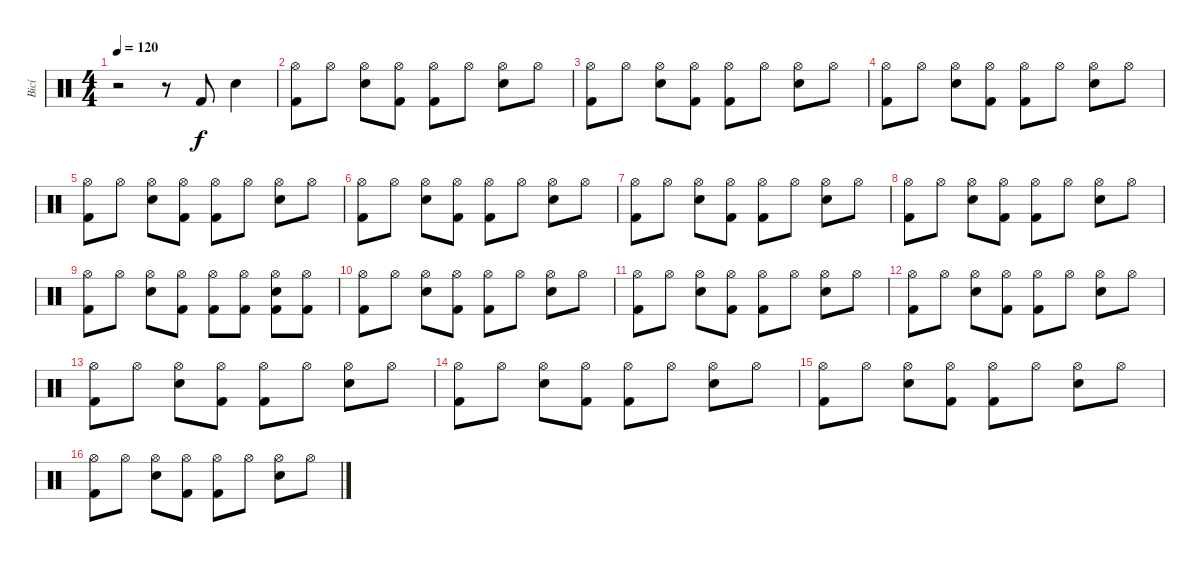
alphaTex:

\track ("Bicí" "Bicí") {instrument percussion}
\staff {score}
\articulation defaults
\ts (4 4)
\tempo 120
\clef neutral
\ks c
r.2{dy f} r.8 "Kick (hit) 2".8 "Electric Snare (hit)".4 |
("Hi-Hat (open)" "Kick (hit) 2").8 "Hi-Hat (open)".8 ("Hi-Hat (open)" "Electric Snare (hit)").8 ("Hi-Hat (open)" "Kick (hit) 2").8 ("Hi-Hat (open)" "Kick (hit) 2").8 "Hi-Hat (open)".8 ("Hi-Hat (open)" "Electric Snare (hit)").8 "Hi-Hat (open)".8 |
("Hi-Hat (open)" "Kick (hit) 2").8 "Hi-Hat (open)".8 ("Hi-Hat (open)" "Electric Snare (hit)").8 ("Hi-Hat (open)" "Kick (hit) 2").8 ("Hi-Hat (open)" "Kick (hit) 2").8 "Hi-Hat (open)".8 ("Hi-Hat (open)" "Electric Snare (hit)").8 "Hi-Hat (open)".8 |
("Hi-Hat (open)" "Kick (hit) 2").8 "Hi-Hat (open)".8 ("Hi-Hat (open)" "Electric Snare (hit)").8 ("Hi-Hat (open)" "Kick (hit) 2").8 ("Hi-Hat (open)" "Kick (hit) 2").8 "Hi-Hat (open)".8 ("Hi-Hat (open)" "Electric Snare (hit)").8 "Hi-Hat (open)".8 |
("Hi-Hat (open)" "Kick (hit) 2").8 "Hi-Hat (open)".8 ("Hi-Hat (open)" "Electric Snare (hit)").8 ("Hi-Hat (open)" "Kick (hit) 2").8 ("Hi-Hat (open)" "Kick (hit) 2").8 "Hi-Hat (open)".8 ("Hi-Hat (open)" "Electric Snare (hit)").8 "Hi-Hat (open)".8 |
("Hi-Hat (open)" "Kick (hit) 2").8 "Hi-Hat (open)".8 ("Hi-Hat (open)" "Electric Snare (hit)").8 ("Hi-Hat (open)" "Kick (hit) 2").8 ("Hi-Hat (open)" "Kick (hit) 2").8 "Hi-Hat (open)".8 ("Hi-Hat (open)" "Electric Snare (hit)").8 "Hi-Hat (open)".8 |
("Hi-Hat (open)" "Kick (hit) 2").8 "Hi-Hat (open)".8 ("Hi-Hat (open)" "Electric Snare (hit)").8 ("Hi-Hat (open)" "Kick (hit) 2").8 ("Hi-Hat (open)" "Kick (hit) 2").8 "Hi-Hat (open)".8 ("Hi-Hat (open)" "Electric Snare (hit)").8 "Hi-Hat (open)".8 |
("Hi-Hat (open)" "Kick (hit) 2").8 "Hi-Hat (open)".8 ("Hi-Hat (open)" "Electric Snare (hit)").8 ("Hi-Hat (open)" "Kick (hit) 2").8 ("Hi-Hat (open)" "Kick (hit) 2").8 "Hi-Hat (open)".8 ("Hi-Hat (open)" "Electric Snare (hit)").8 "Hi-Hat (open)".8 |
("Hi-Hat (open)" "Kick (hit) 2").8 "Hi-Hat (open)".8 ("Hi-Hat (open)" "Electric Snare (hit)").8 ("Hi-Hat (open)" "Kick (hit) 2").8 ("Hi-Hat (open)" "Kick (hit) 2").8 ("Hi-Hat (open)" "Kick (hit) 2").8 ("Hi-Hat (open)" "Electric Snare (hit)" "Kick (hit) 2").8 ("Hi-Hat (open)" "Kick (hit) 2").8 |
("Hi-Hat (open)" "Kick (hit) 2").8 "Hi-Hat (open)".8 ("Hi-Hat (open)" "Electric Snare (hit)").8 ("Hi-Hat (open)" "Kick (hit) 2").8 ("Hi-Hat (open)" "Kick (hit) 2").8 "Hi-Hat (open)".8 ("Hi-Hat (open)" "Electric Snare (hit)").8 "Hi-Hat (open)".8 |
("Hi-Hat (open)" "Kick (hit) 2").8 "Hi-Hat (open)".8 ("Hi-Hat (open)" "Electric Snare (hit)").8 ("Hi-Hat (open)" "Kick (hit) 2").8 ("Hi-Hat (open)" "Kick (hit) 2").8 "Hi-Hat (open)".8 ("Hi-Hat (open)" "Electric Snare (hit)").8 "Hi-Hat (open)".8 |
("Hi-Hat (open)" "Kick (hit) 2").8 "Hi-Hat (open)".8 ("Hi-Hat (open)" "Electric Snare (hit)").8 ("Hi-Hat (open)" "Kick (hit) 2").8 ("Hi-Hat (open)" "Kick (hit) 2").8 "Hi-Hat (open)".8 ("Hi-Hat (open)" "Electric Snare (hit)").8 "Hi-Hat (open)".8 |
("Hi-Hat (open)" "Kick (hit) 2").8 "Hi-Hat (open)".8 ("Hi-Hat (open)" "Electric Snare (hit)").8 ("Hi-Hat (open)" "Kick (hit) 2").8 ("Hi-Hat (open)" "Kick (hit) 2").8 "Hi-Hat (open)".8 ("Hi-Hat (open)" "Electric Snare (hit)").8 "Hi-Hat (open)".8 |
("Hi-Hat (open)" "Kick (hit) 2").8 "Hi-Hat (open)".8 ("Hi-Hat (open)" "Electric Snare (hit)").8 ("Hi-Hat (open)" "Kick (hit) 2").8 ("Hi-Hat (open)" "Kick (hit) 2").8 "Hi-Hat (open)".8 ("Hi-Hat (open)" "Electric Snare (hit)").8 "Hi-Hat (open)".8 |
("Hi-Hat (open)" "Kick (hit) 2").8 "Hi-Hat (open)".8 ("Hi-Hat (open)" "Electric Snare (hit)").8 ("Hi-Hat (open)" "Kick (hit) 2").8 ("Hi-Hat (open)" "Kick (hit) 2").8 "Hi-Hat (open)".8 ("Hi-Hat (open)" "Electric Snare (hit)").8 "Hi-Hat (open)".8 |
("Hi-Hat (open)" "Kick (hit) 2").8 "Hi-Hat (open)".8 ("Hi-Hat (open)" "Electric Snare (hit)").8 ("Hi-Hat (open)" "Kick (hit) 2").8 ("Hi-Hat (open)" "Kick (hit) 2").8 "Hi-Hat (open)".8 ("Hi-Hat (open)" "Electric Snare (hit)").8 "Hi-Hat (open)".8
